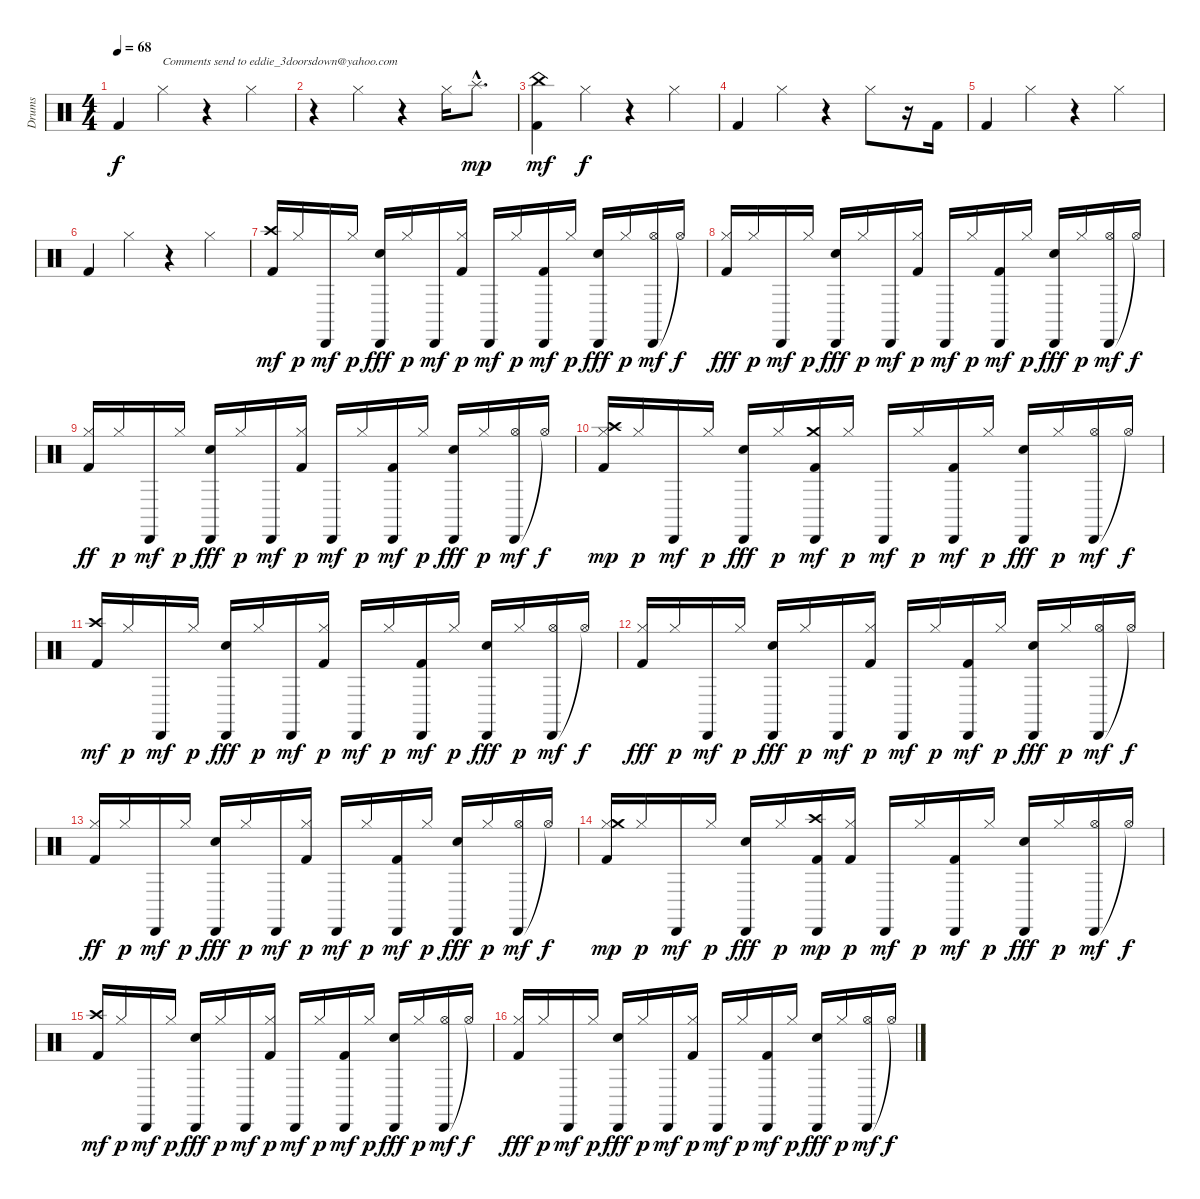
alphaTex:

\track ("Drums" "Drums") {instrument percussion}
\staff {score}
\articulation defaults
\ts (4 4)
\tempo 68
\clef neutral
\ks c "Kick (hit) 2".4{dy f} "Hi-Hat (closed)".4{txt "Comments send to eddie_3doorsdown@yahoo.com "}
r.4 "Hi-Hat (closed)".4 |
r.4 "Hi-Hat (closed)".4 r.4 "Hi-Hat (closed)".16 "Splash (hit)"{hac}.8{d dy mp} |
("Kick (hit) 2" "China (hit)").4{dy mf} "Hi-Hat (closed)".4{dy f} r.4 "Hi-Hat (closed)".4 |
"Kick (hit) 2".4 "Hi-Hat (closed)".4 r.4 "Hi-Hat (closed)".8 r.16 "Kick (hit) 2".16 |
"Kick (hit) 2".4 "Hi-Hat (closed)".4 r.4 "Hi-Hat (closed)".4 |
"Kick (hit) 2".4 "Hi-Hat (closed)".4 r.4 "Hi-Hat (closed)".4 |
("Kick (hit) 2" "Crash high (hit)").16{dy mf} "Hi-Hat (closed)".16{dy p} "Cabasa (hit)".16{dy mf} "Hi-Hat (closed)".16{dy p} ("Cabasa (hit)" "Snare (hit) 2").16{dy fff} "Hi-Hat (closed)".16{dy p} "Cabasa (hit)".16{dy mf} ("Hi-Hat (closed)" "Kick (hit) 2").16{dy p} "Cabasa (hit)".16{dy mf} "Hi-Hat (closed)".16{dy p} ("Cabasa (hit)" "Kick (hit) 2").16{dy mf} "Hi-Hat (closed)".16{dy p} ("Cabasa (hit)" "Snare (hit) 2").16{dy fff} "Hi-Hat (closed)".16{dy p} ("Cabasa (hit)" "Hi-Hat (open)").16{dy mf} "Hi-Hat (open)"{t}.16{dy f} |
("Hi-Hat (closed)" "Kick (hit) 2").16{dy fff} "Hi-Hat (closed)".16{dy p} "Cabasa (hit)".16{dy mf} "Hi-Hat (closed)".16{dy p} ("Cabasa (hit)" "Snare (hit) 2").16{dy fff} "Hi-Hat (closed)".16{dy p} "Cabasa (hit)".16{dy mf} ("Hi-Hat (closed)" "Kick (hit) 2").16{dy p} "Cabasa (hit)".16{dy mf} "Hi-Hat (closed)".16{dy p} ("Cabasa (hit)" "Kick (hit) 2").16{dy mf} "Hi-Hat (closed)".16{dy p} ("Cabasa (hit)" "Snare (hit) 2").16{dy fff} "Hi-Hat (closed)".16{dy p} ("Cabasa (hit)" "Hi-Hat (open)").16{dy mf} "Hi-Hat (open)"{t}.16{dy f} |
("Hi-Hat (closed)" "Kick (hit) 2").16{dy ff} "Hi-Hat (closed)".16{dy p} "Cabasa (hit)".16{dy mf} "Hi-Hat (closed)".16{dy p} ("Cabasa (hit)" "Snare (hit) 2").16{dy fff} "Hi-Hat (closed)".16{dy p} "Cabasa (hit)".16{dy mf} ("Hi-Hat (closed)" "Kick (hit) 2").16{dy p} "Cabasa (hit)".16{dy mf} "Hi-Hat (closed)".16{dy p} ("Cabasa (hit)" "Kick (hit) 2").16{dy mf} "Hi-Hat (closed)".16{dy p} ("Cabasa (hit)" "Snare (hit) 2").16{dy fff} "Hi-Hat (closed)".16{dy p} ("Cabasa (hit)" "Hi-Hat (open)").16{dy mf} "Hi-Hat (open)"{t}.16{dy f} |
("Hi-Hat (closed)" "Kick (hit) 2" "Crash high (hit)").16{dy mp} "Hi-Hat (closed)".16{dy p} "Cabasa (hit)".16{dy mf} "Hi-Hat (closed)".16{dy p} ("Cabasa (hit)" "Snare (hit) 2").16{dy fff} "Hi-Hat (closed)".16{dy p} ("Cabasa (hit)" "Kick (hit) 2" "Crash medium (hit)").16{dy mf} "Hi-Hat (closed)".16{dy p} "Cabasa (hit)".16{dy mf} "Hi-Hat (closed)".16{dy p} ("Cabasa (hit)" "Kick (hit) 2").16{dy mf} "Hi-Hat (closed)".16{dy p} ("Cabasa (hit)" "Snare (hit) 2").16{dy fff} "Hi-Hat (closed)".16{dy p} ("Cabasa (hit)" "Hi-Hat (open)").16{dy mf} "Hi-Hat (open)"{t}.16{dy f} |
("Kick (hit) 2" "Crash high (hit)").16{dy mf} "Hi-Hat (closed)".16{dy p} "Cabasa (hit)".16{dy mf} "Hi-Hat (closed)".16{dy p} ("Cabasa (hit)" "Snare (hit) 2").16{dy fff} "Hi-Hat (closed)".16{dy p} "Cabasa (hit)".16{dy mf} ("Hi-Hat (closed)" "Kick (hit) 2").16{dy p} "Cabasa (hit)".16{dy mf} "Hi-Hat (closed)".16{dy p} ("Cabasa (hit)" "Kick (hit) 2").16{dy mf} "Hi-Hat (closed)".16{dy p} ("Cabasa (hit)" "Snare (hit) 2").16{dy fff} "Hi-Hat (closed)".16{dy p} ("Cabasa (hit)" "Hi-Hat (open)").16{dy mf} "Hi-Hat (open)"{t}.16{dy f} |
("Hi-Hat (closed)" "Kick (hit) 2").16{dy fff} "Hi-Hat (closed)".16{dy p} "Cabasa (hit)".16{dy mf} "Hi-Hat (closed)".16{dy p} ("Cabasa (hit)" "Snare (hit) 2").16{dy fff} "Hi-Hat (closed)".16{dy p} "Cabasa (hit)".16{dy mf} ("Hi-Hat (closed)" "Kick (hit) 2").16{dy p} "Cabasa (hit)".16{dy mf} "Hi-Hat (closed)".16{dy p} ("Cabasa (hit)" "Kick (hit) 2").16{dy mf} "Hi-Hat (closed)".16{dy p} ("Cabasa (hit)" "Snare (hit) 2").16{dy fff} "Hi-Hat (closed)".16{dy p} ("Cabasa (hit)" "Hi-Hat (open)").16{dy mf} "Hi-Hat (open)"{t}.16{dy f} |
("Hi-Hat (closed)" "Kick (hit) 2").16{dy ff} "Hi-Hat (closed)".16{dy p} "Cabasa (hit)".16{dy mf} "Hi-Hat (closed)".16{dy p} ("Cabasa (hit)" "Snare (hit) 2").16{dy fff} "Hi-Hat (closed)".16{dy p} "Cabasa (hit)".16{dy mf} ("Hi-Hat (closed)" "Kick (hit) 2").16{dy p} "Cabasa (hit)".16{dy mf} "Hi-Hat (closed)".16{dy p} ("Cabasa (hit)" "Kick (hit) 2").16{dy mf} "Hi-Hat (closed)".16{dy p} ("Cabasa (hit)" "Snare (hit) 2").16{dy fff} "Hi-Hat (closed)".16{dy p} ("Cabasa (hit)" "Hi-Hat (open)").16{dy mf} "Hi-Hat (open)"{t}.16{dy f} |
("Hi-Hat (closed)" "Kick (hit) 2" "Crash medium (hit)").16{dy mp} "Hi-Hat (closed)".16{dy p} "Cabasa (hit)".16{dy mf} "Hi-Hat (closed)".16{dy p} ("Cabasa (hit)" "Snare (hit) 2").16{dy fff} "Hi-Hat (closed)".16{dy p} ("Cabasa (hit)" "Kick (hit) 2" "Crash high (hit)").16{dy mp} ("Hi-Hat (closed)" "Kick (hit) 2").16{dy p} "Cabasa (hit)".16{dy mf} "Hi-Hat (closed)".16{dy p} ("Cabasa (hit)" "Kick (hit) 2").16{dy mf} "Hi-Hat (closed)".16{dy p} ("Cabasa (hit)" "Snare (hit) 2").16{dy fff} "Hi-Hat (closed)".16{dy p} ("Cabasa (hit)" "Hi-Hat (open)").16{dy mf} "Hi-Hat (open)"{t}.16{dy f} |
("Kick (hit) 2" "Crash high (hit)").16{dy mf} "Hi-Hat (closed)".16{dy p} "Cabasa (hit)".16{dy mf} "Hi-Hat (closed)".16{dy p} ("Cabasa (hit)" "Snare (hit) 2").16{dy fff} "Hi-Hat (closed)".16{dy p} "Cabasa (hit)".16{dy mf} ("Hi-Hat (closed)" "Kick (hit) 2").16{dy p} "Cabasa (hit)".16{dy mf} "Hi-Hat (closed)".16{dy p} ("Cabasa (hit)" "Kick (hit) 2").16{dy mf} "Hi-Hat (closed)".16{dy p} ("Cabasa (hit)" "Snare (hit) 2").16{dy fff} "Hi-Hat (closed)".16{dy p} ("Cabasa (hit)" "Hi-Hat (open)").16{dy mf} "Hi-Hat (open)"{t}.16{dy f} |
("Hi-Hat (closed)" "Kick (hit) 2").16{dy fff} "Hi-Hat (closed)".16{dy p} "Cabasa (hit)".16{dy mf} "Hi-Hat (closed)".16{dy p} ("Cabasa (hit)" "Snare (hit) 2").16{dy fff} "Hi-Hat (closed)".16{dy p} "Cabasa (hit)".16{dy mf} ("Hi-Hat (closed)" "Kick (hit) 2").16{dy p} "Cabasa (hit)".16{dy mf} "Hi-Hat (closed)".16{dy p} ("Cabasa (hit)" "Kick (hit) 2").16{dy mf} "Hi-Hat (closed)".16{dy p} ("Cabasa (hit)" "Snare (hit) 2").16{dy fff} "Hi-Hat (closed)".16{dy p} ("Cabasa (hit)" "Hi-Hat (open)").16{dy mf} "Hi-Hat (open)"{t}.16{dy f}
